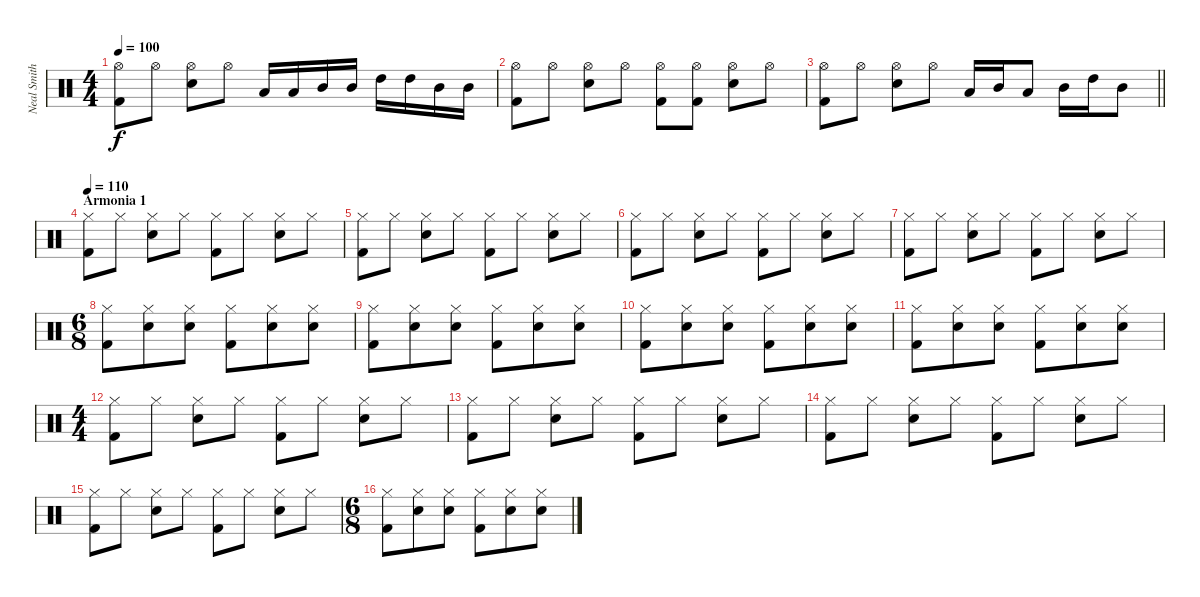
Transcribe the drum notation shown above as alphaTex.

\track ("Neal Smith" "Neal Smith") {instrument percussion}
\staff {score}
\articulation defaults
\ts (4 4)
\tempo 100
\clef neutral
\ks c
("Hi-Hat (open)" "Kick (hit) 2").8{dy f} "Hi-Hat (open)".8 ("Hi-Hat (open)" "Snare (hit) 2").8 "Hi-Hat (open)".8 "Low Tom (hit)".16 "Low Tom (hit)".16 "Mid Tom (hit)".16 "Mid Tom (hit)".16 "High Tom (hit)".16 "High Tom (hit)".16 "Mid Tom (hit)".16 "Mid Tom (hit)".16 |
("Hi-Hat (open)" "Kick (hit) 2").8 "Hi-Hat (open)".8 ("Hi-Hat (open)" "Snare (hit) 2").8 "Hi-Hat (open)".8 ("Hi-Hat (open)" "Kick (hit) 2").8 ("Hi-Hat (open)" "Kick (hit) 2").8 ("Hi-Hat (open)" "Snare (hit) 2").8 "Hi-Hat (open)".8 |
\barLineRight lightlight
("Hi-Hat (open)" "Kick (hit) 2").8 "Hi-Hat (open)".8 ("Hi-Hat (open)" "Snare (hit) 2").8 "Hi-Hat (open)".8 "Low Tom (hit)".16 "Mid Tom (hit)".16 "Low Tom (hit)".8 "Mid Tom (hit)".16 "High Tom (hit)".16 "Mid Tom (hit)".8 |
\section ("" "Armonia 1")
\tempo 110
("Hi-Hat (closed)" "Kick (hit) 2").8 "Hi-Hat (closed)".8 ("Hi-Hat (closed)" "Snare (hit) 2").8 "Hi-Hat (closed)".8 ("Hi-Hat (closed)" "Kick (hit) 2").8 "Hi-Hat (closed)".8 ("Hi-Hat (closed)" "Snare (hit) 2").8 "Hi-Hat (closed)".8 |
("Hi-Hat (closed)" "Kick (hit) 2").8 "Hi-Hat (closed)".8 ("Hi-Hat (closed)" "Snare (hit) 2").8 "Hi-Hat (closed)".8 ("Hi-Hat (closed)" "Kick (hit) 2").8 "Hi-Hat (closed)".8 ("Hi-Hat (closed)" "Snare (hit) 2").8 "Hi-Hat (closed)".8 |
("Hi-Hat (closed)" "Kick (hit) 2").8 "Hi-Hat (closed)".8 ("Hi-Hat (closed)" "Snare (hit) 2").8 "Hi-Hat (closed)".8 ("Hi-Hat (closed)" "Kick (hit) 2").8 "Hi-Hat (closed)".8 ("Hi-Hat (closed)" "Snare (hit) 2").8 "Hi-Hat (closed)".8 |
("Hi-Hat (closed)" "Kick (hit) 2").8 "Hi-Hat (closed)".8 ("Hi-Hat (closed)" "Snare (hit) 2").8 "Hi-Hat (closed)".8 ("Hi-Hat (closed)" "Kick (hit) 2").8 "Hi-Hat (closed)".8 ("Hi-Hat (closed)" "Snare (hit) 2").8 "Hi-Hat (closed)".8 |
\ts (6 8)
("Hi-Hat (closed)" "Kick (hit) 2").8 ("Hi-Hat (closed)" "Snare (hit) 2").8 ("Hi-Hat (closed)" "Snare (hit) 2").8 ("Hi-Hat (closed)" "Kick (hit) 2").8 ("Hi-Hat (closed)" "Snare (hit) 2").8 ("Hi-Hat (closed)" "Snare (hit) 2").8 |
("Hi-Hat (closed)" "Kick (hit) 2").8 ("Hi-Hat (closed)" "Snare (hit) 2").8 ("Hi-Hat (closed)" "Snare (hit) 2").8 ("Hi-Hat (closed)" "Kick (hit) 2").8 ("Hi-Hat (closed)" "Snare (hit) 2").8 ("Hi-Hat (closed)" "Snare (hit) 2").8 |
("Hi-Hat (closed)" "Kick (hit) 2").8 ("Hi-Hat (closed)" "Snare (hit) 2").8 ("Hi-Hat (closed)" "Snare (hit) 2").8 ("Hi-Hat (closed)" "Kick (hit) 2").8 ("Hi-Hat (closed)" "Snare (hit) 2").8 ("Hi-Hat (closed)" "Snare (hit) 2").8 |
("Hi-Hat (closed)" "Kick (hit) 2").8 ("Hi-Hat (closed)" "Snare (hit) 2").8 ("Hi-Hat (closed)" "Snare (hit) 2").8 ("Hi-Hat (closed)" "Kick (hit) 2").8 ("Hi-Hat (closed)" "Snare (hit) 2").8 ("Hi-Hat (closed)" "Snare (hit) 2").8 |
\ts (4 4)
("Hi-Hat (closed)" "Kick (hit) 2").8 "Hi-Hat (closed)".8 ("Hi-Hat (closed)" "Snare (hit) 2").8 "Hi-Hat (closed)".8 ("Hi-Hat (closed)" "Kick (hit) 2").8 "Hi-Hat (closed)".8 ("Hi-Hat (closed)" "Snare (hit) 2").8 "Hi-Hat (closed)".8 |
("Hi-Hat (closed)" "Kick (hit) 2").8 "Hi-Hat (closed)".8 ("Hi-Hat (closed)" "Snare (hit) 2").8 "Hi-Hat (closed)".8 ("Hi-Hat (closed)" "Kick (hit) 2").8 "Hi-Hat (closed)".8 ("Hi-Hat (closed)" "Snare (hit) 2").8 "Hi-Hat (closed)".8 |
("Hi-Hat (closed)" "Kick (hit) 2").8 "Hi-Hat (closed)".8 ("Hi-Hat (closed)" "Snare (hit) 2").8 "Hi-Hat (closed)".8 ("Hi-Hat (closed)" "Kick (hit) 2").8 "Hi-Hat (closed)".8 ("Hi-Hat (closed)" "Snare (hit) 2").8 "Hi-Hat (closed)".8 |
("Hi-Hat (closed)" "Kick (hit) 2").8 "Hi-Hat (closed)".8 ("Hi-Hat (closed)" "Snare (hit) 2").8 "Hi-Hat (closed)".8 ("Hi-Hat (closed)" "Kick (hit) 2").8 "Hi-Hat (closed)".8 ("Hi-Hat (closed)" "Snare (hit) 2").8 "Hi-Hat (closed)".8 |
\ts (6 8)
("Hi-Hat (closed)" "Kick (hit) 2").8 ("Hi-Hat (closed)" "Snare (hit) 2").8 ("Hi-Hat (closed)" "Snare (hit) 2").8 ("Hi-Hat (closed)" "Kick (hit) 2").8 ("Hi-Hat (closed)" "Snare (hit) 2").8 ("Hi-Hat (closed)" "Snare (hit) 2").8
